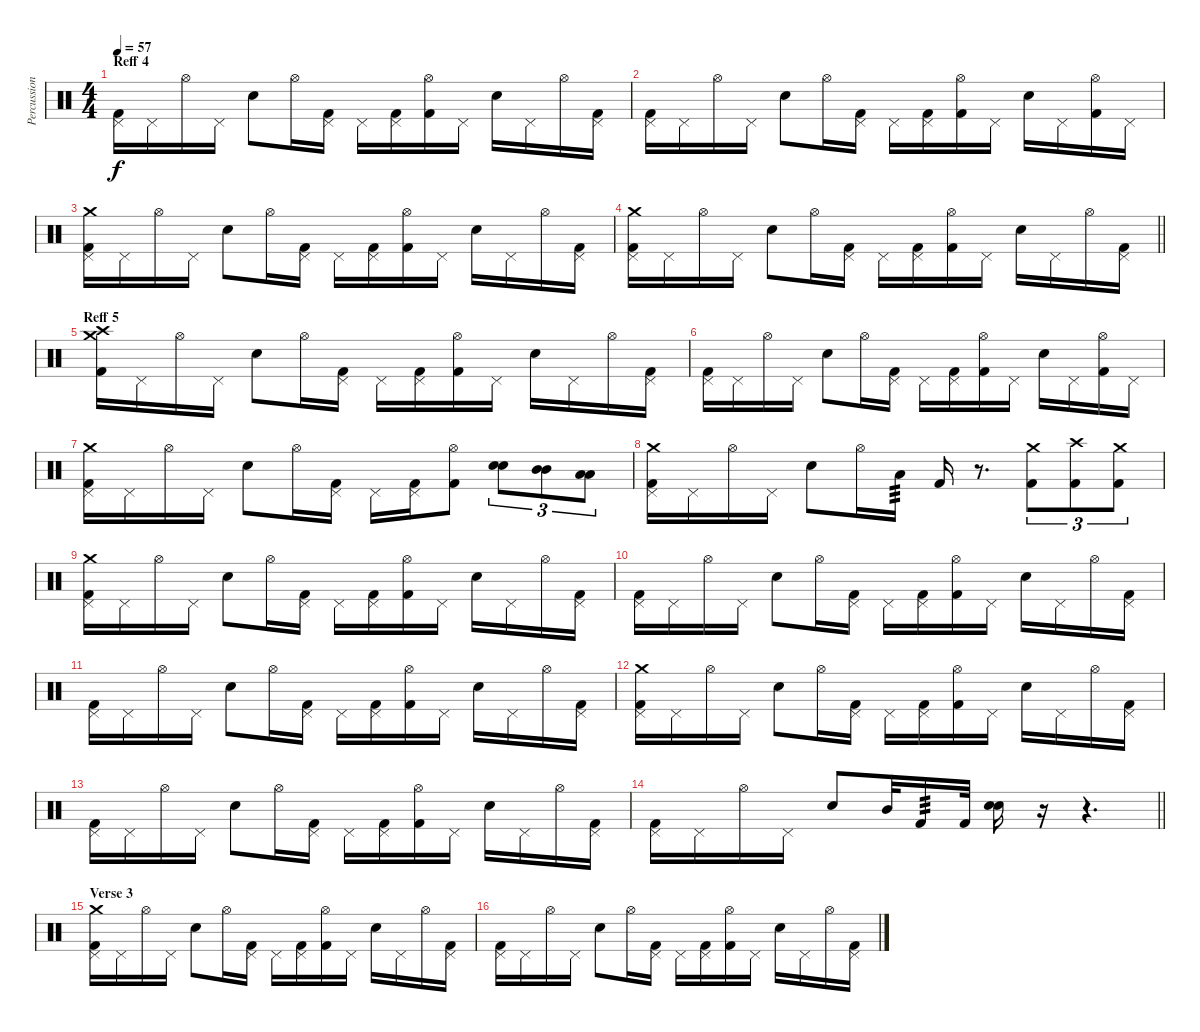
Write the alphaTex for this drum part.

\track ("Percussion" "Percussion") {instrument percussion}
\staff {score}
\articulation defaults
\ts (4 4)
\section ("" "Reff 4")
\tempo 57
\clef neutral
\ks c
("Pedal Hi-Hat (hit)" "Kick (hit) 2").16{dy f} "Pedal Hi-Hat (hit)".16 "Hi-Hat (open)".16 "Pedal Hi-Hat (hit)".16 "Electric Snare (hit)".8 "Hi-Hat (open)".16 ("Pedal Hi-Hat (hit)" "Kick (hit) 2").16 "Pedal Hi-Hat (hit)".16 ("Pedal Hi-Hat (hit)" "Kick (hit) 2").16 ("Hi-Hat (open)" "Kick (hit) 2").16 "Pedal Hi-Hat (hit)".16 "Electric Snare (hit)".16 "Pedal Hi-Hat (hit)".16 "Hi-Hat (open)".16 ("Pedal Hi-Hat (hit)" "Kick (hit) 2").16 |
("Pedal Hi-Hat (hit)" "Kick (hit) 2").16 "Pedal Hi-Hat (hit)".16 "Hi-Hat (open)".16 "Pedal Hi-Hat (hit)".16 "Electric Snare (hit)".8 "Hi-Hat (open)".16 ("Pedal Hi-Hat (hit)" "Kick (hit) 2").16 "Pedal Hi-Hat (hit)".16 ("Pedal Hi-Hat (hit)" "Kick (hit) 2").16 ("Hi-Hat (open)" "Kick (hit) 2").16 "Pedal Hi-Hat (hit)".16 "Electric Snare (hit)".16 "Pedal Hi-Hat (hit)".16 ("Hi-Hat (open)" "Kick (hit) 2").16 "Pedal Hi-Hat (hit)".16 |
("Pedal Hi-Hat (hit)" "Crash medium (hit)" "Kick (hit) 2").16 "Pedal Hi-Hat (hit)".16 "Hi-Hat (open)".16 "Pedal Hi-Hat (hit)".16 "Electric Snare (hit)".8 "Hi-Hat (open)".16 ("Pedal Hi-Hat (hit)" "Kick (hit) 2").16 "Pedal Hi-Hat (hit)".16 ("Pedal Hi-Hat (hit)" "Kick (hit) 2").16 ("Hi-Hat (open)" "Kick (hit) 2").16 "Pedal Hi-Hat (hit)".16 "Electric Snare (hit)".16 "Pedal Hi-Hat (hit)".16 "Hi-Hat (open)".16 ("Pedal Hi-Hat (hit)" "Kick (hit) 2").16 |
\barLineRight lightlight
("Pedal Hi-Hat (hit)" "Crash medium (hit)" "Kick (hit) 2").16 "Pedal Hi-Hat (hit)".16 "Hi-Hat (open)".16 "Pedal Hi-Hat (hit)".16 "Electric Snare (hit)".8 "Hi-Hat (open)".16 ("Pedal Hi-Hat (hit)" "Kick (hit) 2").16 "Pedal Hi-Hat (hit)".16 ("Pedal Hi-Hat (hit)" "Kick (hit) 2").16 ("Hi-Hat (open)" "Kick (hit) 2").16 "Pedal Hi-Hat (hit)".16 "Electric Snare (hit)".16 "Pedal Hi-Hat (hit)".16 "Hi-Hat (open)".16 ("Pedal Hi-Hat (hit)" "Kick (hit) 2").16 |
\section ("" "Reff 5")
("Crash medium (hit)" "Crash high (hit)" "Kick (hit) 2").16 "Pedal Hi-Hat (hit)".16 "Hi-Hat (open)".16 "Pedal Hi-Hat (hit)".16 "Electric Snare (hit)".8 "Hi-Hat (open)".16 ("Pedal Hi-Hat (hit)" "Kick (hit) 2").16 "Pedal Hi-Hat (hit)".16 ("Pedal Hi-Hat (hit)" "Kick (hit) 2").16 ("Hi-Hat (open)" "Kick (hit) 2").16 "Pedal Hi-Hat (hit)".16 "Electric Snare (hit)".16 "Pedal Hi-Hat (hit)".16 "Hi-Hat (open)".16 ("Pedal Hi-Hat (hit)" "Kick (hit) 2").16 |
("Pedal Hi-Hat (hit)" "Kick (hit) 2").16 "Pedal Hi-Hat (hit)".16 "Hi-Hat (open)".16 "Pedal Hi-Hat (hit)".16 "Electric Snare (hit)".8 "Hi-Hat (open)".16 ("Pedal Hi-Hat (hit)" "Kick (hit) 2").16 "Pedal Hi-Hat (hit)".16 ("Pedal Hi-Hat (hit)" "Kick (hit) 2").16 ("Hi-Hat (open)" "Kick (hit) 2").16 "Pedal Hi-Hat (hit)".16 "Electric Snare (hit)".16 "Pedal Hi-Hat (hit)".16 ("Hi-Hat (open)" "Kick (hit) 2").16 "Pedal Hi-Hat (hit)".16 |
("Pedal Hi-Hat (hit)" "Crash medium (hit)" "Kick (hit) 2").16 "Pedal Hi-Hat (hit)".16 "Hi-Hat (open)".16 "Pedal Hi-Hat (hit)".16 "Electric Snare (hit)".8 "Hi-Hat (open)".16 ("Pedal Hi-Hat (hit)" "Kick (hit) 2").16 "Pedal Hi-Hat (hit)".16 ("Pedal Hi-Hat (hit)" "Kick (hit) 2").16 ("Hi-Hat (open)" "Kick (hit) 2").8 ("Electric Snare (hit)" "Electric Snare (hit)").8{tu (3 2) bd 120} ("Mid Tom (hit)" "Mid Tom (hit)").8{tu (3 2) bd 120} ("Low Tom (hit)" "Low Tom (hit)").8{tu (3 2) bd 120} |
("Pedal Hi-Hat (hit)" "Crash medium (hit)" "Kick (hit) 2").16 "Pedal Hi-Hat (hit)".16 "Hi-Hat (open)".16 "Pedal Hi-Hat (hit)".16 "Electric Snare (hit)".8 "Hi-Hat (open)".16 "Low Tom (hit)".16{tp 3} "Kick (hit) 2".16 r.8{d} ("Crash medium (hit)" "Kick (hit) 2").8{tu (3 2)} ("Crash high (hit)" "Kick (hit) 2").8{tu (3 2)} ("Crash medium (hit)" "Kick (hit) 2").8{tu (3 2)} |
("Pedal Hi-Hat (hit)" "Crash medium (hit)" "Kick (hit) 2").16 "Pedal Hi-Hat (hit)".16 "Hi-Hat (open)".16 "Pedal Hi-Hat (hit)".16 "Electric Snare (hit)".8 "Hi-Hat (open)".16 ("Pedal Hi-Hat (hit)" "Kick (hit) 2").16 "Pedal Hi-Hat (hit)".16 ("Pedal Hi-Hat (hit)" "Kick (hit) 2").16 ("Hi-Hat (open)" "Kick (hit) 2").16 "Pedal Hi-Hat (hit)".16 "Electric Snare (hit)".16 "Pedal Hi-Hat (hit)".16 "Hi-Hat (open)".16 ("Pedal Hi-Hat (hit)" "Kick (hit) 2").16 |
("Pedal Hi-Hat (hit)" "Kick (hit) 2").16 "Pedal Hi-Hat (hit)".16 "Hi-Hat (open)".16 "Pedal Hi-Hat (hit)".16 "Electric Snare (hit)".8 "Hi-Hat (open)".16 ("Pedal Hi-Hat (hit)" "Kick (hit) 2").16 "Pedal Hi-Hat (hit)".16 ("Pedal Hi-Hat (hit)" "Kick (hit) 2").16 ("Hi-Hat (open)" "Kick (hit) 2").16 "Pedal Hi-Hat (hit)".16 "Electric Snare (hit)".16 "Pedal Hi-Hat (hit)".16 "Hi-Hat (open)".16 ("Pedal Hi-Hat (hit)" "Kick (hit) 2").16 |
("Pedal Hi-Hat (hit)" "Kick (hit) 2").16 "Pedal Hi-Hat (hit)".16 "Hi-Hat (open)".16 "Pedal Hi-Hat (hit)".16 "Electric Snare (hit)".8 "Hi-Hat (open)".16 ("Pedal Hi-Hat (hit)" "Kick (hit) 2").16 "Pedal Hi-Hat (hit)".16 ("Pedal Hi-Hat (hit)" "Kick (hit) 2").16 ("Hi-Hat (open)" "Kick (hit) 2").16 "Pedal Hi-Hat (hit)".16 "Electric Snare (hit)".16 "Pedal Hi-Hat (hit)".16 "Hi-Hat (open)".16 ("Pedal Hi-Hat (hit)" "Kick (hit) 2").16 |
("Pedal Hi-Hat (hit)" "Crash medium (hit)" "Kick (hit) 2").16 "Pedal Hi-Hat (hit)".16 "Hi-Hat (open)".16 "Pedal Hi-Hat (hit)".16 "Electric Snare (hit)".8 "Hi-Hat (open)".16 ("Pedal Hi-Hat (hit)" "Kick (hit) 2").16 "Pedal Hi-Hat (hit)".16 ("Pedal Hi-Hat (hit)" "Kick (hit) 2").16 ("Hi-Hat (open)" "Kick (hit) 2").16 "Pedal Hi-Hat (hit)".16 "Electric Snare (hit)".16 "Pedal Hi-Hat (hit)".16 "Hi-Hat (open)".16 ("Pedal Hi-Hat (hit)" "Kick (hit) 2").16 |
("Pedal Hi-Hat (hit)" "Kick (hit) 2").16 "Pedal Hi-Hat (hit)".16 "Hi-Hat (open)".16 "Pedal Hi-Hat (hit)".16 "Electric Snare (hit)".8 "Hi-Hat (open)".16 ("Pedal Hi-Hat (hit)" "Kick (hit) 2").16 "Pedal Hi-Hat (hit)".16 ("Pedal Hi-Hat (hit)" "Kick (hit) 2").16 ("Hi-Hat (open)" "Kick (hit) 2").16 "Pedal Hi-Hat (hit)".16 "Electric Snare (hit)".16 "Pedal Hi-Hat (hit)".16 "Hi-Hat (open)".16 ("Pedal Hi-Hat (hit)" "Kick (hit) 2").16 |
\barLineRight lightlight
("Pedal Hi-Hat (hit)" "Kick (hit) 2").16 "Pedal Hi-Hat (hit)".16 "Hi-Hat (open)".16 "Pedal Hi-Hat (hit)".16 "Electric Snare (hit)".8 "Mid Tom (hit)".32 "Kick (hit) 2".16{tp 3} "Kick (hit) 2".32 ("Electric Snare (hit)" "Electric Snare (hit)").16{bd 120} r.16 r.4{d} |
\section ("" "Verse 3")
("Pedal Hi-Hat (hit)" "Crash medium (hit)" "Kick (hit) 2").16 "Pedal Hi-Hat (hit)".16 "Hi-Hat (open)".16 "Pedal Hi-Hat (hit)".16 "Electric Snare (hit)".8 "Hi-Hat (open)".16 ("Pedal Hi-Hat (hit)" "Kick (hit) 2").16 "Pedal Hi-Hat (hit)".16 ("Pedal Hi-Hat (hit)" "Kick (hit) 2").16 ("Hi-Hat (open)" "Kick (hit) 2").16 "Pedal Hi-Hat (hit)".16 "Electric Snare (hit)".16 "Pedal Hi-Hat (hit)".16 "Hi-Hat (open)".16 ("Pedal Hi-Hat (hit)" "Kick (hit) 2").16 |
("Pedal Hi-Hat (hit)" "Kick (hit) 2").16 "Pedal Hi-Hat (hit)".16 "Hi-Hat (open)".16 "Pedal Hi-Hat (hit)".16 "Electric Snare (hit)".8 "Hi-Hat (open)".16 ("Pedal Hi-Hat (hit)" "Kick (hit) 2").16 "Pedal Hi-Hat (hit)".16 ("Pedal Hi-Hat (hit)" "Kick (hit) 2").16 ("Hi-Hat (open)" "Kick (hit) 2").16 "Pedal Hi-Hat (hit)".16 "Electric Snare (hit)".16 "Pedal Hi-Hat (hit)".16 "Hi-Hat (open)".16 ("Pedal Hi-Hat (hit)" "Kick (hit) 2").16
